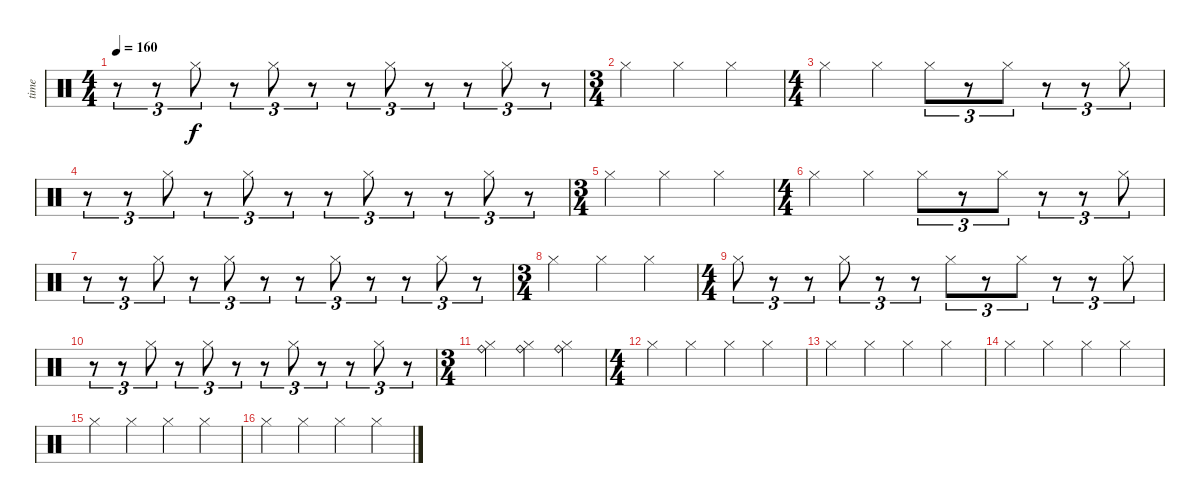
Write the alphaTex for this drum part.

\track ("time" "time") {instrument percussion}
\staff {score}
\articulation defaults
\ts (4 4)
\tempo 160
\clef neutral
\ks c
r.8{tu (3 2) dy f} r.8{tu (3 2)} "Hi-Hat (closed)".8{tu (3 2)} r.8{tu (3 2)} "Hi-Hat (closed)".8{tu (3 2)} r.8{tu (3 2)} r.8{tu (3 2)} "Hi-Hat (closed)".8{tu (3 2)} r.8{tu (3 2)} r.8{tu (3 2)} "Hi-Hat (closed)".8{tu (3 2)} r.8{tu (3 2)} |
\ts (3 4)
"Hi-Hat (closed)".4 "Hi-Hat (closed)".4 "Hi-Hat (closed)".4 |
\ts (4 4)
"Hi-Hat (closed)".4 "Hi-Hat (closed)".4 "Hi-Hat (closed)".8{tu (3 2)} r.8{tu (3 2)} "Hi-Hat (closed)".8{tu (3 2)} r.8{tu (3 2)} r.8{tu (3 2)} "Hi-Hat (closed)".8{tu (3 2)} |
r.8{tu (3 2)} r.8{tu (3 2)} "Hi-Hat (closed)".8{tu (3 2)} r.8{tu (3 2)} "Hi-Hat (closed)".8{tu (3 2)} r.8{tu (3 2)} r.8{tu (3 2)} "Hi-Hat (closed)".8{tu (3 2)} r.8{tu (3 2)} r.8{tu (3 2)} "Hi-Hat (closed)".8{tu (3 2)} r.8{tu (3 2)} |
\ts (3 4)
"Hi-Hat (closed)".4 "Hi-Hat (closed)".4 "Hi-Hat (closed)".4 |
\ts (4 4)
"Hi-Hat (closed)".4 "Hi-Hat (closed)".4 "Hi-Hat (closed)".8{tu (3 2)} r.8{tu (3 2)} "Hi-Hat (closed)".8{tu (3 2)} r.8{tu (3 2)} r.8{tu (3 2)} "Hi-Hat (closed)".8{tu (3 2)} |
r.8{tu (3 2)} r.8{tu (3 2)} "Hi-Hat (closed)".8{tu (3 2)} r.8{tu (3 2)} "Hi-Hat (closed)".8{tu (3 2)} r.8{tu (3 2)} r.8{tu (3 2)} "Hi-Hat (closed)".8{tu (3 2)} r.8{tu (3 2)} r.8{tu (3 2)} "Hi-Hat (closed)".8{tu (3 2)} r.8{tu (3 2)} |
\ts (3 4)
"Hi-Hat (closed)".4 "Hi-Hat (closed)".4 "Hi-Hat (closed)".4 |
\ts (4 4)
"Hi-Hat (closed)".8{tu (3 2)} r.8{tu (3 2)} r.8{tu (3 2)} "Hi-Hat (closed)".8{tu (3 2)} r.8{tu (3 2)} r.8{tu (3 2)} "Hi-Hat (closed)".8{tu (3 2)} r.8{tu (3 2)} "Hi-Hat (closed)".8{tu (3 2)} r.8{tu (3 2)} r.8{tu (3 2)} "Hi-Hat (closed)".8{tu (3 2)} |
r.8{tu (3 2)} r.8{tu (3 2)} "Hi-Hat (closed)".8{tu (3 2)} r.8{tu (3 2)} "Hi-Hat (closed)".8{tu (3 2)} r.8{tu (3 2)} r.8{tu (3 2)} "Hi-Hat (closed)".8{tu (3 2)} r.8{tu (3 2)} r.8{tu (3 2)} "Hi-Hat (closed)".8{tu (3 2)} r.8{tu (3 2)} |
\ts (3 4)
("Ride (bell)" "Hi-Hat (closed)").4 ("Ride (bell)" "Hi-Hat (closed)").4 ("Ride (bell)" "Hi-Hat (closed)").4 |
\ts (4 4)
"Hi-Hat (closed)".4 "Hi-Hat (closed)".4 "Hi-Hat (closed)".4 "Hi-Hat (closed)".4 |
"Hi-Hat (closed)".4 "Hi-Hat (closed)".4 "Hi-Hat (closed)".4 "Hi-Hat (closed)".4 |
"Hi-Hat (closed)".4 "Hi-Hat (closed)".4 "Hi-Hat (closed)".4 "Hi-Hat (closed)".4 |
"Hi-Hat (closed)".4 "Hi-Hat (closed)".4 "Hi-Hat (closed)".4 "Hi-Hat (closed)".4 |
"Hi-Hat (closed)".4 "Hi-Hat (closed)".4 "Hi-Hat (closed)".4 "Hi-Hat (closed)".4
